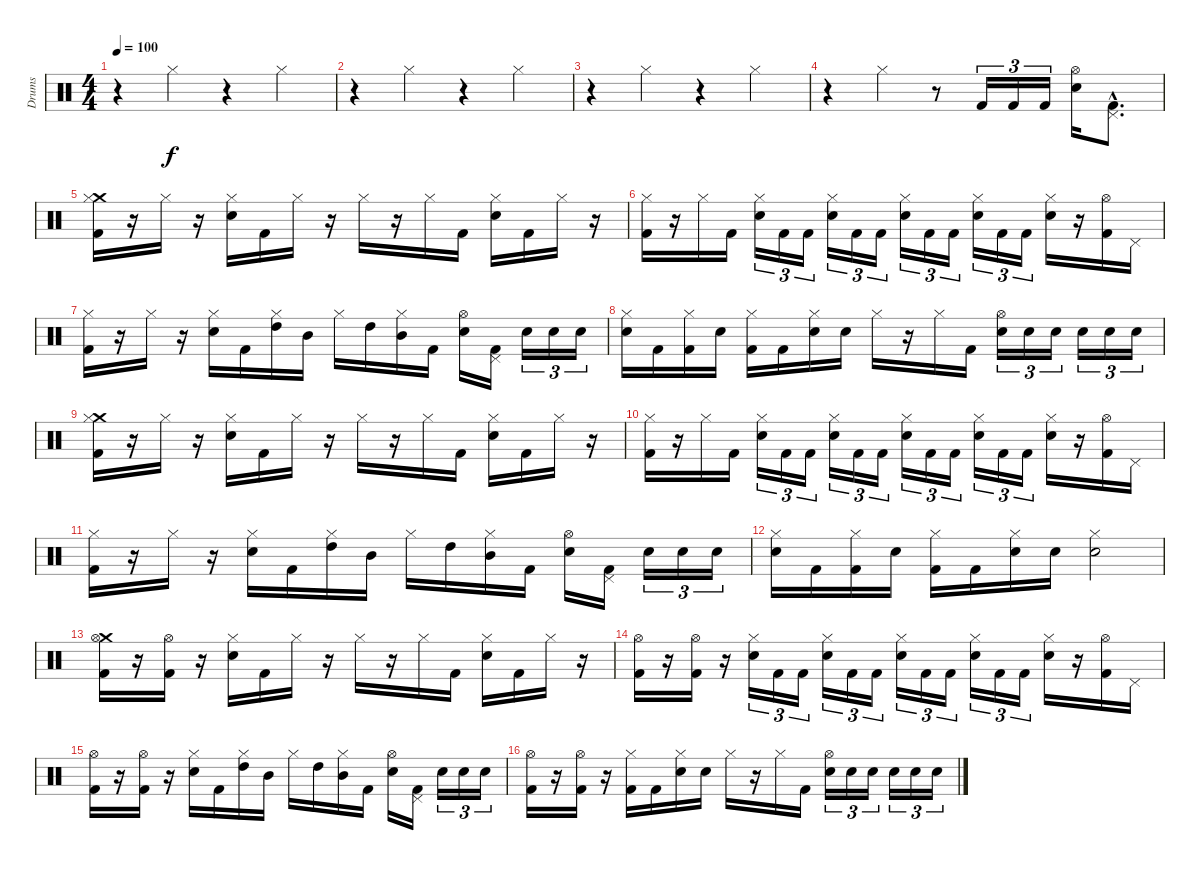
\track ("Drums" "Drums") {instrument percussion}
\staff {score}
\articulation defaults
\ts (4 4)
\tempo 100
\clef neutral
\ks c
r.4{dy f} "Hi-Hat (closed)".4 r.4 "Hi-Hat (closed)".4 |
r.4 "Hi-Hat (closed)".4 r.4 "Hi-Hat (closed)".4 |
r.4 "Hi-Hat (closed)".4 r.4 "Hi-Hat (closed)".4 |
r.4 "Hi-Hat (closed)".4 r.8 "Kick (hit) 2".16{tu (3 2)} "Kick (hit) 2".16{tu (3 2)} "Kick (hit) 2".16{tu (3 2)} ("Hi-Hat (open)" "Electric Snare (hit)").16 ("Pedal Hi-Hat (hit)"{hac} "Kick (hit) 2"{hac}).8{d} |
("Crash medium (hit)" "Hi-Hat (closed)" "Kick (hit) 2").16 r.16 "Hi-Hat (closed)".16 r.16 ("Hi-Hat (closed)" "Electric Snare (hit)").16 "Kick (hit) 2".16 "Hi-Hat (closed)".16 r.16 "Hi-Hat (closed)".16 r.16 "Hi-Hat (closed)".16 "Kick (hit) 2".16 ("Hi-Hat (closed)" "Electric Snare (hit)").16 "Kick (hit) 2".16 "Hi-Hat (closed)".16 r.16 |
("Hi-Hat (closed)" "Kick (hit) 2").16 r.16 "Hi-Hat (closed)".16 "Kick (hit) 2".16 ("Hi-Hat (closed)" "Electric Snare (hit)").16{tu (3 2)} "Kick (hit) 2".16{tu (3 2)} "Kick (hit) 2".16{tu (3 2)} ("Hi-Hat (closed)" "Electric Snare (hit)").16{tu (3 2)} "Kick (hit) 2".16{tu (3 2)} "Kick (hit) 2".16{tu (3 2)} ("Hi-Hat (closed)" "Electric Snare (hit)").16{tu (3 2)} "Kick (hit) 2".16{tu (3 2)} "Kick (hit) 2".16{tu (3 2)} ("Hi-Hat (closed)" "Electric Snare (hit)").16{tu (3 2)} "Kick (hit) 2".16{tu (3 2)} "Kick (hit) 2".16{tu (3 2)} ("Hi-Hat (closed)" "Electric Snare (hit)").16 r.16 ("Hi-Hat (open)" "Kick (hit) 2").16 "Pedal Hi-Hat (hit)".16 |
("Hi-Hat (closed)" "Kick (hit) 2").16 r.16 "Hi-Hat (closed)".16 r.16 ("Hi-Hat (closed)" "Electric Snare (hit)").16 "Kick (hit) 2".16 ("Hi-Hat (closed)" "High Tom (hit)").16 "Mid Tom (hit)".16 "Hi-Hat (closed)".16 "High Tom (hit)".16 ("Hi-Hat (closed)" "Mid Tom (hit)").16 "Kick (hit) 2".16 ("Hi-Hat (open)" "Electric Snare (hit)").16 ("Pedal Hi-Hat (hit)" "Kick (hit) 2").16 "Electric Snare (hit)".16{tu (3 2)} "Electric Snare (hit)".16{tu (3 2)} "Electric Snare (hit)".16{tu (3 2)} |
("Hi-Hat (closed)" "Electric Snare (hit)").16 "Kick (hit) 2".16 ("Hi-Hat (closed)" "Kick (hit) 2").16 "Electric Snare (hit)".16 ("Hi-Hat (closed)" "Kick (hit) 2").16 "Kick (hit) 2".16 ("Hi-Hat (closed)" "Electric Snare (hit)").16 "Electric Snare (hit)".16 "Hi-Hat (closed)".16 r.16 "Hi-Hat (closed)".16 "Kick (hit) 2".16 ("Hi-Hat (open)" "Electric Snare (hit)").16{tu (3 2)} "Electric Snare (hit)".16{tu (3 2)} "Electric Snare (hit)".16{tu (3 2)} "Electric Snare (hit)".16{tu (3 2)} "Electric Snare (hit)".16{tu (3 2)} "Electric Snare (hit)".16{tu (3 2)} |
("Crash medium (hit)" "Hi-Hat (closed)" "Kick (hit) 2").16 r.16 "Hi-Hat (closed)".16 r.16 ("Hi-Hat (closed)" "Electric Snare (hit)").16 "Kick (hit) 2".16 "Hi-Hat (closed)".16 r.16 "Hi-Hat (closed)".16 r.16 "Hi-Hat (closed)".16 "Kick (hit) 2".16 ("Hi-Hat (closed)" "Electric Snare (hit)").16 "Kick (hit) 2".16 "Hi-Hat (closed)".16 r.16 |
("Hi-Hat (closed)" "Kick (hit) 2").16 r.16 "Hi-Hat (closed)".16 "Kick (hit) 2".16 ("Hi-Hat (closed)" "Electric Snare (hit)").16{tu (3 2)} "Kick (hit) 2".16{tu (3 2)} "Kick (hit) 2".16{tu (3 2)} ("Hi-Hat (closed)" "Electric Snare (hit)").16{tu (3 2)} "Kick (hit) 2".16{tu (3 2)} "Kick (hit) 2".16{tu (3 2)} ("Hi-Hat (closed)" "Electric Snare (hit)").16{tu (3 2)} "Kick (hit) 2".16{tu (3 2)} "Kick (hit) 2".16{tu (3 2)} ("Hi-Hat (closed)" "Electric Snare (hit)").16{tu (3 2)} "Kick (hit) 2".16{tu (3 2)} "Kick (hit) 2".16{tu (3 2)} ("Hi-Hat (closed)" "Electric Snare (hit)").16 r.16 ("Hi-Hat (open)" "Kick (hit) 2").16 "Pedal Hi-Hat (hit)".16 |
("Hi-Hat (closed)" "Kick (hit) 2").16 r.16 "Hi-Hat (closed)".16 r.16 ("Hi-Hat (closed)" "Electric Snare (hit)").16 "Kick (hit) 2".16 ("Hi-Hat (closed)" "High Tom (hit)").16 "Mid Tom (hit)".16 "Hi-Hat (closed)".16 "High Tom (hit)".16 ("Hi-Hat (closed)" "Mid Tom (hit)").16 "Kick (hit) 2".16 ("Hi-Hat (open)" "Electric Snare (hit)").16 ("Pedal Hi-Hat (hit)" "Kick (hit) 2").16 "Electric Snare (hit)".16{tu (3 2)} "Electric Snare (hit)".16{tu (3 2)} "Electric Snare (hit)".16{tu (3 2)} |
("Hi-Hat (closed)" "Electric Snare (hit)").16 "Kick (hit) 2".16 ("Hi-Hat (closed)" "Kick (hit) 2").16 "Electric Snare (hit)".16 ("Hi-Hat (closed)" "Kick (hit) 2").16 "Kick (hit) 2".16 ("Hi-Hat (closed)" "Electric Snare (hit)").16 "Electric Snare (hit)".16 ("Hi-Hat (closed)" "Electric Snare (hit)").2 |
("Crash medium (hit)" "Hi-Hat (open)" "Kick (hit) 2").16 r.16 ("Hi-Hat (open)" "Kick (hit) 2").16 r.16 ("Hi-Hat (closed)" "Electric Snare (hit)").16 "Kick (hit) 2".16 "Hi-Hat (closed)".16 r.16 "Hi-Hat (closed)".16 r.16 "Hi-Hat (closed)".16 "Kick (hit) 2".16 ("Hi-Hat (closed)" "Electric Snare (hit)").16 "Kick (hit) 2".16 "Hi-Hat (closed)".16 r.16 |
("Hi-Hat (open)" "Kick (hit) 2").16 r.16 ("Hi-Hat (open)" "Kick (hit) 2").16 r.16 ("Hi-Hat (closed)" "Electric Snare (hit)").16{tu (3 2)} "Kick (hit) 2".16{tu (3 2)} "Kick (hit) 2".16{tu (3 2)} ("Hi-Hat (closed)" "Electric Snare (hit)").16{tu (3 2)} "Kick (hit) 2".16{tu (3 2)} "Kick (hit) 2".16{tu (3 2)} ("Hi-Hat (closed)" "Electric Snare (hit)").16{tu (3 2)} "Kick (hit) 2".16{tu (3 2)} "Kick (hit) 2".16{tu (3 2)} ("Hi-Hat (closed)" "Electric Snare (hit)").16{tu (3 2)} "Kick (hit) 2".16{tu (3 2)} "Kick (hit) 2".16{tu (3 2)} ("Hi-Hat (closed)" "Electric Snare (hit)").16 r.16 ("Hi-Hat (open)" "Kick (hit) 2").16 "Pedal Hi-Hat (hit)".16 |
("Hi-Hat (open)" "Kick (hit) 2").16 r.16 ("Hi-Hat (open)" "Kick (hit) 2").16 r.16 ("Hi-Hat (closed)" "Electric Snare (hit)").16 "Kick (hit) 2".16 ("Hi-Hat (closed)" "High Tom (hit)").16 "Mid Tom (hit)".16 "Hi-Hat (closed)".16 "High Tom (hit)".16 ("Hi-Hat (closed)" "Mid Tom (hit)").16 "Kick (hit) 2".16 ("Hi-Hat (open)" "Electric Snare (hit)").16 ("Pedal Hi-Hat (hit)" "Kick (hit) 2").16 "Electric Snare (hit)".16{tu (3 2)} "Electric Snare (hit)".16{tu (3 2)} "Electric Snare (hit)".16{tu (3 2)} |
("Hi-Hat (open)" "Kick (hit) 2").16 r.16 ("Hi-Hat (open)" "Kick (hit) 2").16 r.16 ("Hi-Hat (closed)" "Kick (hit) 2").16 "Kick (hit) 2".16 ("Hi-Hat (closed)" "Electric Snare (hit)").16 "Electric Snare (hit)".16 "Hi-Hat (closed)".16 r.16 "Hi-Hat (closed)".16 "Kick (hit) 2".16 ("Hi-Hat (open)" "Electric Snare (hit)").16{tu (3 2)} "Electric Snare (hit)".16{tu (3 2)} "Electric Snare (hit)".16{tu (3 2)} "Electric Snare (hit)".16{tu (3 2)} "Electric Snare (hit)".16{tu (3 2)} "Electric Snare (hit)".16{tu (3 2)}
